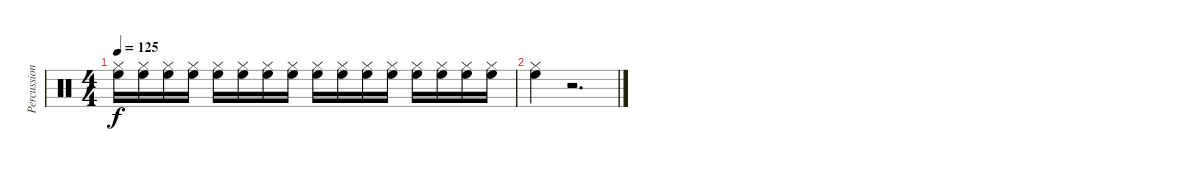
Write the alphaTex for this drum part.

\track ("Percussion" "Percussion") {instrument percussion}
\staff {score}
\articulation defaults
\ts (4 4)
\tempo 125
\clef neutral
\ks c
("Hi-Hat (closed)" "High Floor Tom (hit)").16{dy f} ("Hi-Hat (closed)" "High Floor Tom (hit)").16 ("Hi-Hat (closed)" "High Floor Tom (hit)").16 ("Hi-Hat (closed)" "High Floor Tom (hit)").16 ("Hi-Hat (closed)" "High Floor Tom (hit)").16 ("Hi-Hat (closed)" "High Floor Tom (hit)").16 ("Hi-Hat (closed)" "High Floor Tom (hit)").16 ("Hi-Hat (closed)" "High Floor Tom (hit)").16 ("Hi-Hat (closed)" "High Floor Tom (hit)").16 ("Hi-Hat (closed)" "High Floor Tom (hit)").16 ("Hi-Hat (closed)" "High Floor Tom (hit)").16 ("Hi-Hat (closed)" "High Floor Tom (hit)").16 ("Hi-Hat (closed)" "High Floor Tom (hit)").16 ("Hi-Hat (closed)" "High Floor Tom (hit)").16 ("Hi-Hat (closed)" "High Floor Tom (hit)").16 ("Hi-Hat (closed)" "High Floor Tom (hit)").16 |
("Hi-Hat (closed)" "High Floor Tom (hit)").4 r.2{d}
